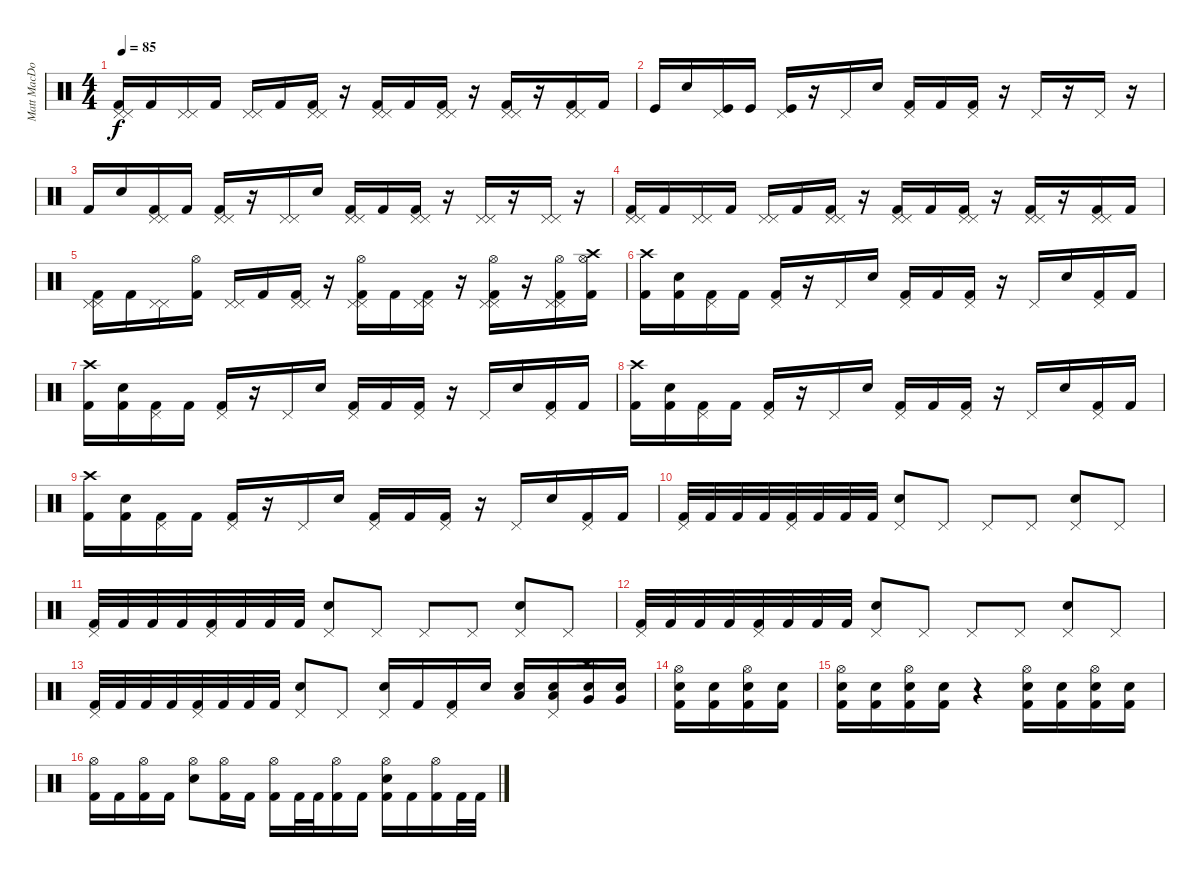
\track ("Matt MacDonough" "Matt MacDo") {instrument percussion}
\staff {score}
\articulation defaults
\ts (4 4)
\tempo 85
\clef neutral
\ks c
("Pedal Hi-Hat (hit)" "Pedal Hi-Hat (hit)" "Kick (hit) 2").16{dy f} "Kick (hit) 2".16 ("Pedal Hi-Hat (hit)" "Pedal Hi-Hat (hit)").16 "Kick (hit) 2".16 ("Pedal Hi-Hat (hit)" "Pedal Hi-Hat (hit)").16 "Kick (hit) 2".16 ("Pedal Hi-Hat (hit)" "Pedal Hi-Hat (hit)" "Kick (hit) 2").16 r.16 ("Pedal Hi-Hat (hit)" "Pedal Hi-Hat (hit)" "Kick (hit) 2").16 "Kick (hit) 2".16 ("Pedal Hi-Hat (hit)" "Pedal Hi-Hat (hit)" "Kick (hit) 2").16 r.16 ("Pedal Hi-Hat (hit)" "Pedal Hi-Hat (hit)" "Kick (hit) 2").16 r.16 ("Pedal Hi-Hat (hit)" "Pedal Hi-Hat (hit)" "Kick (hit) 2").16 "Kick (hit) 2".16 |
"Kick (hit)".16 "Electric Snare (hit)".16 ("Pedal Hi-Hat (hit)" "Kick (hit)").16 "Kick (hit)".16 ("Pedal Hi-Hat (hit)" "Kick (hit)").16 r.16 "Pedal Hi-Hat (hit)".16 "Electric Snare (hit)".16 ("Pedal Hi-Hat (hit)" "Kick (hit) 2").16 "Kick (hit) 2".16 ("Pedal Hi-Hat (hit)" "Kick (hit) 2").16 r.16 "Pedal Hi-Hat (hit)".16 r.16 "Pedal Hi-Hat (hit)".16 r.16 |
"Kick (hit) 2".16 "Electric Snare (hit)".16 ("Pedal Hi-Hat (hit)" "Pedal Hi-Hat (hit)" "Kick (hit) 2").16 "Kick (hit) 2".16 ("Pedal Hi-Hat (hit)" "Pedal Hi-Hat (hit)" "Kick (hit) 2").16 r.16 ("Pedal Hi-Hat (hit)" "Pedal Hi-Hat (hit)").16 "Electric Snare (hit)".16 ("Pedal Hi-Hat (hit)" "Pedal Hi-Hat (hit)" "Kick (hit) 2").16 "Kick (hit) 2".16 ("Pedal Hi-Hat (hit)" "Pedal Hi-Hat (hit)" "Kick (hit) 2").16 r.16 ("Pedal Hi-Hat (hit)" "Pedal Hi-Hat (hit)").16 r.16 ("Pedal Hi-Hat (hit)" "Pedal Hi-Hat (hit)").16 r.16 |
("Pedal Hi-Hat (hit)" "Pedal Hi-Hat (hit)" "Kick (hit) 2").16 "Kick (hit) 2".16 ("Pedal Hi-Hat (hit)" "Pedal Hi-Hat (hit)").16 "Kick (hit) 2".16 ("Pedal Hi-Hat (hit)" "Pedal Hi-Hat (hit)").16 "Kick (hit) 2".16 ("Pedal Hi-Hat (hit)" "Pedal Hi-Hat (hit)" "Kick (hit) 2").16 r.16 ("Pedal Hi-Hat (hit)" "Pedal Hi-Hat (hit)" "Kick (hit) 2").16 "Kick (hit) 2".16 ("Pedal Hi-Hat (hit)" "Pedal Hi-Hat (hit)" "Kick (hit) 2").16 r.16 ("Pedal Hi-Hat (hit)" "Pedal Hi-Hat (hit)" "Kick (hit) 2").16 r.16 ("Pedal Hi-Hat (hit)" "Pedal Hi-Hat (hit)" "Kick (hit) 2").16 "Kick (hit) 2".16 |
("Pedal Hi-Hat (hit)" "Pedal Hi-Hat (hit)" "Kick (hit) 2").16 "Kick (hit) 2".16 ("Pedal Hi-Hat (hit)" "Pedal Hi-Hat (hit)").16 ("Hi-Hat (open)" "Kick (hit) 2").16 ("Pedal Hi-Hat (hit)" "Pedal Hi-Hat (hit)").16 "Kick (hit) 2".16 ("Pedal Hi-Hat (hit)" "Pedal Hi-Hat (hit)" "Kick (hit) 2").16 r.16 ("Pedal Hi-Hat (hit)" "Pedal Hi-Hat (hit)" "Hi-Hat (open)" "Kick (hit) 2").16 "Kick (hit) 2".16 ("Pedal Hi-Hat (hit)" "Pedal Hi-Hat (hit)" "Kick (hit) 2").16 r.16 ("Pedal Hi-Hat (hit)" "Pedal Hi-Hat (hit)" "Hi-Hat (open)" "Kick (hit) 2").16 r.16 ("Pedal Hi-Hat (hit)" "Pedal Hi-Hat (hit)" "Hi-Hat (open)" "Kick (hit) 2").16 ("Crash high (hit)" "Hi-Hat (open)" "Kick (hit) 2").16 |
("Crash high (hit)" "Kick (hit) 2").16 ("Electric Snare (hit)" "Kick (hit) 2").16 ("Pedal Hi-Hat (hit)" "Kick (hit) 2").16 "Kick (hit) 2".16 ("Pedal Hi-Hat (hit)" "Kick (hit) 2").16 r.16 "Pedal Hi-Hat (hit)".16 "Electric Snare (hit)".16 ("Pedal Hi-Hat (hit)" "Kick (hit) 2").16 "Kick (hit) 2".16 ("Pedal Hi-Hat (hit)" "Kick (hit) 2").16 r.16 "Pedal Hi-Hat (hit)".16 "Electric Snare (hit)".16 ("Pedal Hi-Hat (hit)" "Kick (hit) 2").16 "Kick (hit) 2".16 |
("Crash high (hit)" "Kick (hit) 2").16 ("Electric Snare (hit)" "Kick (hit) 2").16 ("Pedal Hi-Hat (hit)" "Kick (hit) 2").16 "Kick (hit) 2".16 ("Pedal Hi-Hat (hit)" "Kick (hit) 2").16 r.16 "Pedal Hi-Hat (hit)".16 "Electric Snare (hit)".16 ("Pedal Hi-Hat (hit)" "Kick (hit) 2").16 "Kick (hit) 2".16 ("Pedal Hi-Hat (hit)" "Kick (hit) 2").16 r.16 "Pedal Hi-Hat (hit)".16 "Electric Snare (hit)".16 ("Pedal Hi-Hat (hit)" "Kick (hit) 2").16 "Kick (hit) 2".16 |
("Crash high (hit)" "Kick (hit) 2").16 ("Electric Snare (hit)" "Kick (hit) 2").16 ("Pedal Hi-Hat (hit)" "Kick (hit) 2").16 "Kick (hit) 2".16 ("Pedal Hi-Hat (hit)" "Kick (hit) 2").16 r.16 "Pedal Hi-Hat (hit)".16 "Electric Snare (hit)".16 ("Pedal Hi-Hat (hit)" "Kick (hit) 2").16 "Kick (hit) 2".16 ("Pedal Hi-Hat (hit)" "Kick (hit) 2").16 r.16 "Pedal Hi-Hat (hit)".16 "Electric Snare (hit)".16 ("Pedal Hi-Hat (hit)" "Kick (hit) 2").16 "Kick (hit) 2".16 |
("Crash high (hit)" "Kick (hit) 2").16 ("Electric Snare (hit)" "Kick (hit) 2").16 ("Pedal Hi-Hat (hit)" "Kick (hit) 2").16 "Kick (hit) 2".16 ("Pedal Hi-Hat (hit)" "Kick (hit) 2").16 r.16 "Pedal Hi-Hat (hit)".16 "Electric Snare (hit)".16 ("Pedal Hi-Hat (hit)" "Kick (hit) 2").16 "Kick (hit) 2".16 ("Pedal Hi-Hat (hit)" "Kick (hit) 2").16 r.16 "Pedal Hi-Hat (hit)".16 "Electric Snare (hit)".16 ("Pedal Hi-Hat (hit)" "Kick (hit) 2").16 "Kick (hit) 2".16 |
("Pedal Hi-Hat (hit)" "Kick (hit) 2").32 "Kick (hit) 2".32 "Kick (hit) 2".32 "Kick (hit) 2".32 ("Pedal Hi-Hat (hit)" "Kick (hit) 2").32 "Kick (hit) 2".32 "Kick (hit) 2".32 "Kick (hit) 2".32 ("Pedal Hi-Hat (hit)" "Electric Snare (hit)").8 "Pedal Hi-Hat (hit)".8 "Pedal Hi-Hat (hit)".8 "Pedal Hi-Hat (hit)".8 ("Pedal Hi-Hat (hit)" "Electric Snare (hit)").8 "Pedal Hi-Hat (hit)".8 |
("Pedal Hi-Hat (hit)" "Kick (hit) 2").32 "Kick (hit) 2".32 "Kick (hit) 2".32 "Kick (hit) 2".32 ("Pedal Hi-Hat (hit)" "Kick (hit) 2").32 "Kick (hit) 2".32 "Kick (hit) 2".32 "Kick (hit) 2".32 ("Pedal Hi-Hat (hit)" "Electric Snare (hit)").8 "Pedal Hi-Hat (hit)".8 "Pedal Hi-Hat (hit)".8 "Pedal Hi-Hat (hit)".8 ("Pedal Hi-Hat (hit)" "Electric Snare (hit)").8 "Pedal Hi-Hat (hit)".8 |
("Pedal Hi-Hat (hit)" "Kick (hit) 2").32 "Kick (hit) 2".32 "Kick (hit) 2".32 "Kick (hit) 2".32 ("Pedal Hi-Hat (hit)" "Kick (hit) 2").32 "Kick (hit) 2".32 "Kick (hit) 2".32 "Kick (hit) 2".32 ("Pedal Hi-Hat (hit)" "Electric Snare (hit)").8 "Pedal Hi-Hat (hit)".8 "Pedal Hi-Hat (hit)".8 "Pedal Hi-Hat (hit)".8 ("Pedal Hi-Hat (hit)" "Electric Snare (hit)").8 "Pedal Hi-Hat (hit)".8 |
("Pedal Hi-Hat (hit)" "Kick (hit) 2").32 "Kick (hit) 2".32 "Kick (hit) 2".32 "Kick (hit) 2".32 ("Pedal Hi-Hat (hit)" "Kick (hit) 2").32 "Kick (hit) 2".32 "Kick (hit) 2".32 "Kick (hit) 2".32 ("Pedal Hi-Hat (hit)" "Electric Snare (hit)").8 "Pedal Hi-Hat (hit)".8 ("Pedal Hi-Hat (hit)" "Electric Snare (hit)").16 "Kick (hit) 2".16 ("Pedal Hi-Hat (hit)" "Kick (hit) 2").16 "Electric Snare (hit)".16 ("Electric Snare (hit)" "Low Tom (hit)").16 ("Pedal Hi-Hat (hit)" "Electric Snare (hit)" "Low Tom (hit)").16 ("Crash high (hit)" "Electric Snare (hit)" "Very Low Tom (hit)").16 ("Electric Snare (hit)" "Very Low Tom (hit)").16 |
("Hi-Hat (open)" "Electric Snare (hit)" "Kick (hit) 2").16 ("Electric Snare (hit)" "Kick (hit) 2").16 ("Hi-Hat (open)" "Electric Snare (hit)" "Kick (hit) 2").16 ("Electric Snare (hit)" "Kick (hit) 2").16 |
("Hi-Hat (open)" "Electric Snare (hit)" "Kick (hit) 2").16 ("Electric Snare (hit)" "Kick (hit) 2").16 ("Hi-Hat (open)" "Electric Snare (hit)" "Kick (hit) 2").16 ("Electric Snare (hit)" "Kick (hit) 2").16 r.4 ("Hi-Hat (open)" "Electric Snare (hit)" "Kick (hit) 2").16 ("Electric Snare (hit)" "Kick (hit) 2").16 ("Hi-Hat (open)" "Electric Snare (hit)" "Kick (hit) 2").16 ("Electric Snare (hit)" "Kick (hit) 2").16 |
("Hi-Hat (open)" "Kick (hit) 2").16 "Kick (hit) 2".16 ("Hi-Hat (open)" "Kick (hit) 2").16 "Kick (hit) 2".16 ("Hi-Hat (open)" "Electric Snare (hit)").8 ("Hi-Hat (open)" "Kick (hit) 2").16 "Kick (hit) 2".16 ("Hi-Hat (open)" "Kick (hit) 2").16 "Kick (hit) 2".32 "Kick (hit) 2".32 ("Hi-Hat (open)" "Kick (hit) 2").16 "Kick (hit) 2".16 ("Hi-Hat (open)" "Electric Snare (hit)" "Kick (hit) 2").16 "Kick (hit) 2".16 ("Hi-Hat (open)" "Kick (hit) 2").16 "Kick (hit) 2".32 "Kick (hit) 2".32
